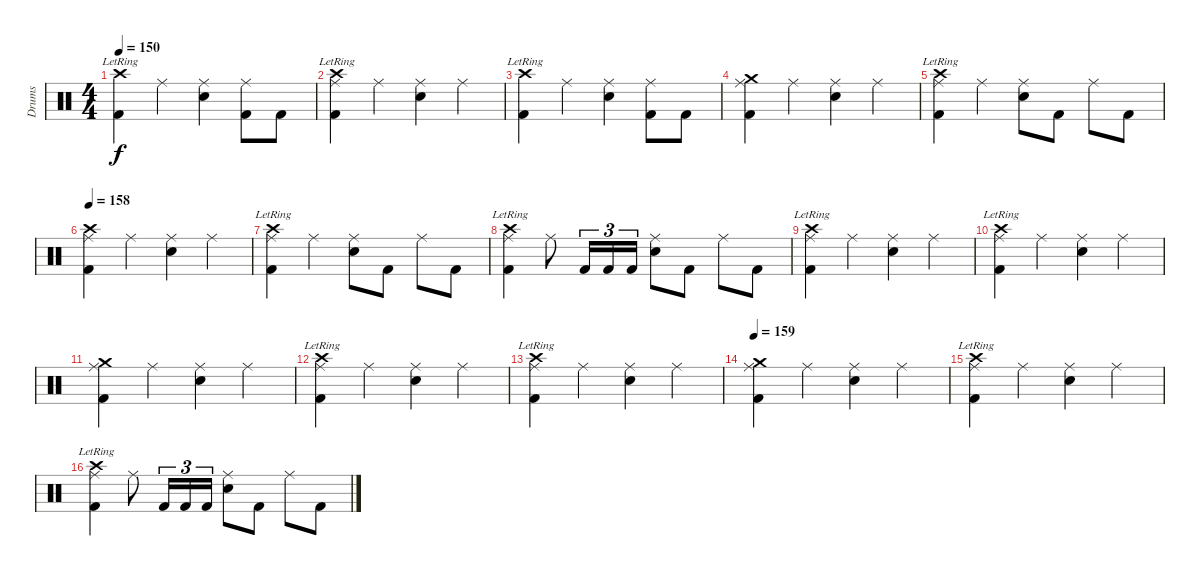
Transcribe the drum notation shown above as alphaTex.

\track ("Drums" "Drums") {instrument percussion}
\staff {score}
\articulation defaults
\ts (4 4)
\tempo 150
\clef neutral
\ks c
("Crash high (hit)"{lr} "Kick (hit) 2").4{dy f} "Ride (middle)".4 ("Ride (middle)" "Snare (hit) 2").4 ("Ride (middle)" "Kick (hit) 2").8 "Kick (hit) 2".8 |
("Crash high (hit)"{lr} "Ride (middle)" "Kick (hit) 2").4 "Ride (middle)".4 ("Ride (middle)" "Snare (hit) 2").4 "Ride (middle)".4 |
("Crash high (hit)"{lr} "Kick (hit) 2").4 "Ride (middle)".4 ("Ride (middle)" "Snare (hit) 2").4 ("Ride (middle)" "Kick (hit) 2").8 "Kick (hit) 2".8 |
("Crash medium (hit)" "Ride (middle)" "Kick (hit) 2").4 "Ride (middle)".4 ("Ride (middle)" "Snare (hit) 2").4 "Ride (middle)".4 |
("Crash high (hit)"{lr} "Ride (middle)" "Kick (hit) 2").4 "Ride (middle)".4 ("Ride (middle)" "Snare (hit) 2").8 "Kick (hit) 2".8 "Ride (middle)".8 "Kick (hit) 2".8 |
\tempo 158
("Crash high (hit)" "Ride (middle)" "Kick (hit) 2").4 "Ride (middle)".4 ("Ride (middle)" "Snare (hit) 2").4 "Ride (middle)".4 |
("Crash high (hit)"{lr} "Ride (middle)" "Kick (hit) 2").4 "Ride (middle)".4 ("Ride (middle)" "Snare (hit) 2").8 "Kick (hit) 2".8 "Ride (middle)".8 "Kick (hit) 2".8 |
("Crash high (hit)"{lr} "Ride (middle)" "Kick (hit) 2").4 "Ride (middle)".8 "Kick (hit) 2".16{tu (3 2)} "Kick (hit) 2".16{tu (3 2)} "Kick (hit) 2".16{tu (3 2)} ("Ride (middle)" "Snare (hit) 2").8 "Kick (hit) 2".8 "Ride (middle)".8 "Kick (hit) 2".8 |
("Crash high (hit)"{lr} "Ride (middle)" "Kick (hit) 2").4 "Ride (middle)".4 ("Ride (middle)" "Snare (hit) 2").4 "Ride (middle)".4 |
("Crash high (hit)"{lr} "Ride (middle)" "Kick (hit) 2").4 "Ride (middle)".4 ("Ride (middle)" "Snare (hit) 2").4 "Ride (middle)".4 |
("Crash medium (hit)" "Ride (middle)" "Kick (hit) 2").4 "Ride (middle)".4 ("Ride (middle)" "Snare (hit) 2").4 "Ride (middle)".4 |
("Crash high (hit)"{lr} "Ride (middle)" "Kick (hit) 2").4 "Ride (middle)".4 ("Ride (middle)" "Snare (hit) 2").4 "Ride (middle)".4 |
("Crash high (hit)"{lr} "Ride (middle)" "Kick (hit) 2").4 "Ride (middle)".4 ("Ride (middle)" "Snare (hit) 2").4 "Ride (middle)".4 |
\tempo 159
("Crash medium (hit)" "Ride (middle)" "Kick (hit) 2").4 "Ride (middle)".4 ("Ride (middle)" "Snare (hit) 2").4 "Ride (middle)".4 |
("Crash high (hit)"{lr} "Ride (middle)" "Kick (hit) 2").4 "Ride (middle)".4 ("Ride (middle)" "Snare (hit) 2").4 "Ride (middle)".4 |
("Crash high (hit)"{lr} "Ride (middle)" "Kick (hit) 2").4 "Ride (middle)".8 "Kick (hit) 2".16{tu (3 2)} "Kick (hit) 2".16{tu (3 2)} "Kick (hit) 2".16{tu (3 2)} ("Ride (middle)" "Snare (hit) 2").8 "Kick (hit) 2".8 "Ride (middle)".8 "Kick (hit) 2".8
